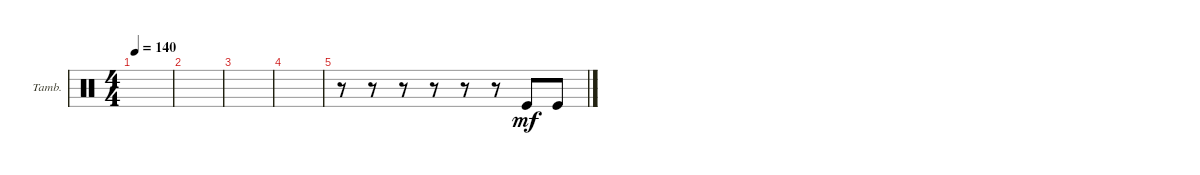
\defaultSystemsLayout 4
\bracketExtendMode groupsimilarinstruments
\firstSystemTrackNameOrientation horizontal
\otherSystemsTrackNameOrientation horizontal
\track ("Tambourine" "Tamb.") {instrument percussion}
\staff {score}
\articulation defaults
\ts (4 4)
\tempo 140
\clef neutral
\ks c
|
|
|
\scale
0.576324 |
\scale
0.423903 r.8 r.8 r.8 r.8 r.8 r.8 "Kick (hit)".8{dy mf} "Kick (hit)".8
